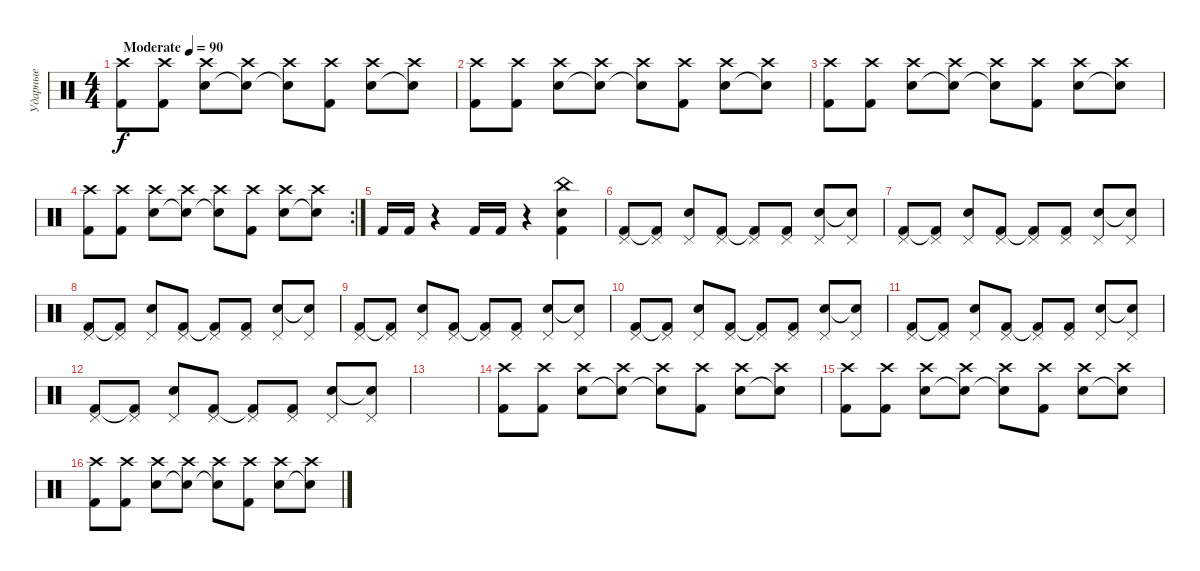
\track ("Ударные" "Ударные") {instrument percussion}
\staff {score}
\articulation defaults
\ts (4 4)
\tempo (90 "Moderate")
\clef neutral
\ks c
("Kick (hit) 2" "Crash high (hit)").8{dy f} ("Kick (hit) 2" "Crash high (hit)").8 ("Electric Snare (hit)" "Crash high (hit)").8 ("Electric Snare (hit)"{t} "Crash high (hit)").8 ("Electric Snare (hit)"{t} "Crash high (hit)").8 ("Kick (hit) 2" "Crash high (hit)").8 ("Electric Snare (hit)" "Crash high (hit)").8 ("Electric Snare (hit)"{t} "Crash high (hit)").8 |
("Kick (hit) 2" "Crash high (hit)").8 ("Kick (hit) 2" "Crash high (hit)").8 ("Electric Snare (hit)" "Crash high (hit)").8 ("Electric Snare (hit)"{t} "Crash high (hit)").8 ("Electric Snare (hit)"{t} "Crash high (hit)").8 ("Kick (hit) 2" "Crash high (hit)").8 ("Electric Snare (hit)" "Crash high (hit)").8 ("Electric Snare (hit)"{t} "Crash high (hit)").8 |
("Kick (hit) 2" "Crash high (hit)").8 ("Kick (hit) 2" "Crash high (hit)").8 ("Electric Snare (hit)" "Crash high (hit)").8 ("Electric Snare (hit)"{t} "Crash high (hit)").8 ("Electric Snare (hit)"{t} "Crash high (hit)").8 ("Kick (hit) 2" "Crash high (hit)").8 ("Electric Snare (hit)" "Crash high (hit)").8 ("Electric Snare (hit)"{t} "Crash high (hit)").8 |
\rc 2
("Kick (hit) 2" "Crash high (hit)").8 ("Kick (hit) 2" "Crash high (hit)").8 ("Electric Snare (hit)" "Crash high (hit)").8 ("Electric Snare (hit)"{t} "Crash high (hit)").8 ("Electric Snare (hit)"{t} "Crash high (hit)").8 ("Kick (hit) 2" "Crash high (hit)").8 ("Electric Snare (hit)" "Crash high (hit)").8 ("Electric Snare (hit)"{t} "Crash high (hit)").8 |
"Kick (hit) 2".16 "Kick (hit) 2".16 r.4 "Kick (hit) 2".16 "Kick (hit) 2".16 r.4 ("Electric Snare (hit)" "China (hit)" "Kick (hit) 2").4 |
("Kick (hit) 2" "Pedal Hi-Hat (hit)").8 ("Kick (hit) 2"{t} "Pedal Hi-Hat (hit)").8 ("Snare (hit) 2" "Pedal Hi-Hat (hit)").8 ("Kick (hit) 2" "Pedal Hi-Hat (hit)").8 ("Kick (hit) 2"{t} "Pedal Hi-Hat (hit)").8 ("Kick (hit) 2" "Pedal Hi-Hat (hit)").8 ("Snare (hit) 2" "Pedal Hi-Hat (hit)").8 ("Snare (hit) 2"{t} "Pedal Hi-Hat (hit)").8 |
("Kick (hit) 2" "Pedal Hi-Hat (hit)").8 ("Kick (hit) 2"{t} "Pedal Hi-Hat (hit)").8 ("Snare (hit) 2" "Pedal Hi-Hat (hit)").8 ("Kick (hit) 2" "Pedal Hi-Hat (hit)").8 ("Kick (hit) 2"{t} "Pedal Hi-Hat (hit)").8 ("Kick (hit) 2" "Pedal Hi-Hat (hit)").8 ("Snare (hit) 2" "Pedal Hi-Hat (hit)").8 ("Snare (hit) 2"{t} "Pedal Hi-Hat (hit)").8 |
("Kick (hit) 2" "Pedal Hi-Hat (hit)").8 ("Kick (hit) 2"{t} "Pedal Hi-Hat (hit)").8 ("Snare (hit) 2" "Pedal Hi-Hat (hit)").8 ("Kick (hit) 2" "Pedal Hi-Hat (hit)").8 ("Kick (hit) 2"{t} "Pedal Hi-Hat (hit)").8 ("Kick (hit) 2" "Pedal Hi-Hat (hit)").8 ("Snare (hit) 2" "Pedal Hi-Hat (hit)").8 ("Snare (hit) 2"{t} "Pedal Hi-Hat (hit)").8 |
("Kick (hit) 2" "Pedal Hi-Hat (hit)").8 ("Kick (hit) 2"{t} "Pedal Hi-Hat (hit)").8 ("Snare (hit) 2" "Pedal Hi-Hat (hit)").8 ("Kick (hit) 2" "Pedal Hi-Hat (hit)").8 ("Kick (hit) 2"{t} "Pedal Hi-Hat (hit)").8 ("Kick (hit) 2" "Pedal Hi-Hat (hit)").8 ("Snare (hit) 2" "Pedal Hi-Hat (hit)").8 ("Snare (hit) 2"{t} "Pedal Hi-Hat (hit)").8 |
("Kick (hit) 2" "Pedal Hi-Hat (hit)").8 ("Kick (hit) 2"{t} "Pedal Hi-Hat (hit)").8 ("Snare (hit) 2" "Pedal Hi-Hat (hit)").8 ("Kick (hit) 2" "Pedal Hi-Hat (hit)").8 ("Kick (hit) 2"{t} "Pedal Hi-Hat (hit)").8 ("Kick (hit) 2" "Pedal Hi-Hat (hit)").8 ("Snare (hit) 2" "Pedal Hi-Hat (hit)").8 ("Snare (hit) 2"{t} "Pedal Hi-Hat (hit)").8 |
("Kick (hit) 2" "Pedal Hi-Hat (hit)").8 ("Kick (hit) 2"{t} "Pedal Hi-Hat (hit)").8 ("Snare (hit) 2" "Pedal Hi-Hat (hit)").8 ("Kick (hit) 2" "Pedal Hi-Hat (hit)").8 ("Kick (hit) 2"{t} "Pedal Hi-Hat (hit)").8 ("Kick (hit) 2" "Pedal Hi-Hat (hit)").8 ("Snare (hit) 2" "Pedal Hi-Hat (hit)").8 ("Snare (hit) 2"{t} "Pedal Hi-Hat (hit)").8 |
("Kick (hit) 2" "Pedal Hi-Hat (hit)").8 ("Kick (hit) 2"{t} "Pedal Hi-Hat (hit)").8 ("Snare (hit) 2" "Pedal Hi-Hat (hit)").8 ("Kick (hit) 2" "Pedal Hi-Hat (hit)").8 ("Kick (hit) 2"{t} "Pedal Hi-Hat (hit)").8 ("Kick (hit) 2" "Pedal Hi-Hat (hit)").8 ("Snare (hit) 2" "Pedal Hi-Hat (hit)").8 ("Snare (hit) 2"{t} "Pedal Hi-Hat (hit)").8 |
|
("Kick (hit) 2" "Crash high (hit)").8 ("Kick (hit) 2" "Crash high (hit)").8 ("Electric Snare (hit)" "Crash high (hit)").8 ("Electric Snare (hit)"{t} "Crash high (hit)").8 ("Electric Snare (hit)"{t} "Crash high (hit)").8 ("Kick (hit) 2" "Crash high (hit)").8 ("Electric Snare (hit)" "Crash high (hit)").8 ("Electric Snare (hit)"{t} "Crash high (hit)").8 |
("Kick (hit) 2" "Crash high (hit)").8 ("Kick (hit) 2" "Crash high (hit)").8 ("Electric Snare (hit)" "Crash high (hit)").8 ("Electric Snare (hit)"{t} "Crash high (hit)").8 ("Electric Snare (hit)"{t} "Crash high (hit)").8 ("Kick (hit) 2" "Crash high (hit)").8 ("Electric Snare (hit)" "Crash high (hit)").8 ("Electric Snare (hit)"{t} "Crash high (hit)").8 |
("Kick (hit) 2" "Crash high (hit)").8 ("Kick (hit) 2" "Crash high (hit)").8 ("Electric Snare (hit)" "Crash high (hit)").8 ("Electric Snare (hit)"{t} "Crash high (hit)").8 ("Electric Snare (hit)"{t} "Crash high (hit)").8 ("Kick (hit) 2" "Crash high (hit)").8 ("Electric Snare (hit)" "Crash high (hit)").8 ("Electric Snare (hit)"{t} "Crash high (hit)").8
